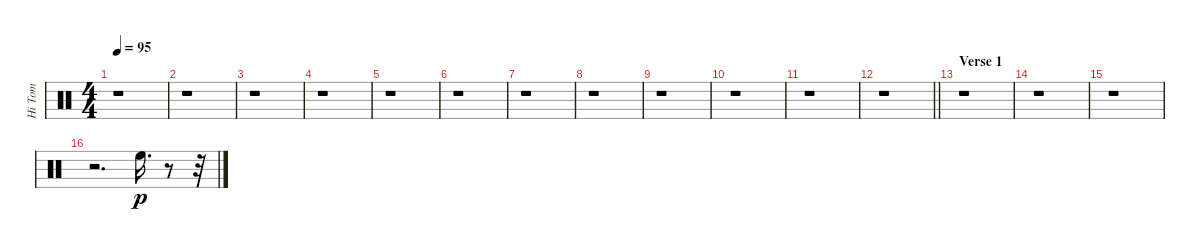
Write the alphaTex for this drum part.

\track ("Hi Tom" "Hi Tom") {instrument percussion}
\staff {score}
\articulation defaults
\ts (4 4)
\tempo 95
\clef neutral
\ks c
r.1{dy p} |
r.1 |
r.1 |
r.1 |
r.1 |
r.1 |
r.1 |
r.1 |
r.1 |
r.1 |
r.1 |
\barLineRight lightlight
r.1 |
\section ("" "Verse 1")
r.1 |
r.1 |
r.1 |
r.2{d} "High Floor Tom (hit)".16{d} r.8 r.32
